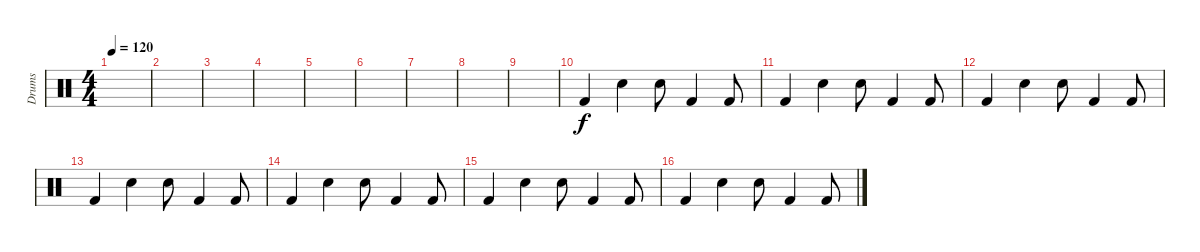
\track ("Drums" "Drums") {instrument percussion}
\staff {score}
\articulation defaults
\ts (4 4)
\tempo 120
\clef neutral
\ks c
|
|
|
|
|
|
|
|
|
"Kick (hit) 2".4 "Snare (hit) 2".4 "Snare (hit) 2".8 "Kick (hit) 2".4 "Kick (hit) 2".8 |
"Kick (hit) 2".4 "Snare (hit) 2".4 "Snare (hit) 2".8 "Kick (hit) 2".4 "Kick (hit) 2".8 |
"Kick (hit) 2".4 "Snare (hit) 2".4 "Snare (hit) 2".8 "Kick (hit) 2".4 "Kick (hit) 2".8 |
"Kick (hit) 2".4 "Snare (hit) 2".4 "Snare (hit) 2".8 "Kick (hit) 2".4 "Kick (hit) 2".8 |
"Kick (hit) 2".4 "Snare (hit) 2".4 "Snare (hit) 2".8 "Kick (hit) 2".4 "Kick (hit) 2".8 |
"Kick (hit) 2".4 "Snare (hit) 2".4 "Snare (hit) 2".8 "Kick (hit) 2".4 "Kick (hit) 2".8 |
"Kick (hit) 2".4 "Snare (hit) 2".4 "Snare (hit) 2".8 "Kick (hit) 2".4 "Kick (hit) 2".8
